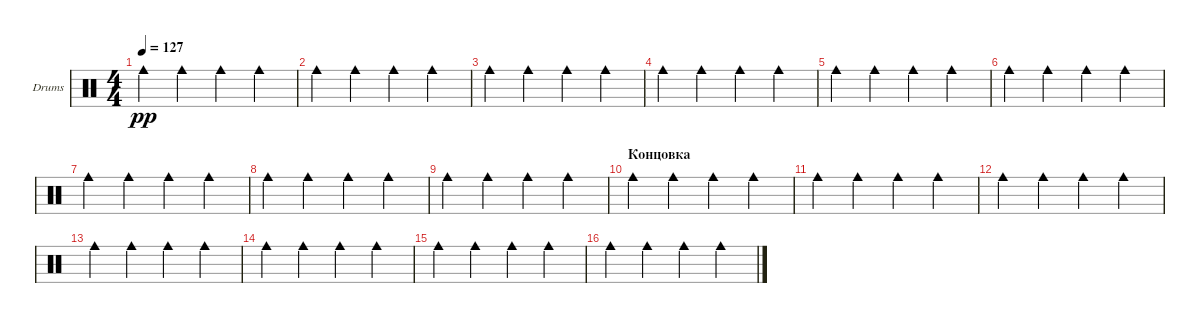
\defaultSystemsLayout 4
\bracketExtendMode groupsimilarinstruments
\firstSystemTrackNameOrientation horizontal
\otherSystemsTrackNameOrientation horizontal
\track ("Drumkit" "Drums") {instrument percussion}
\staff {score}
\articulation defaults
\ts (4 4)
\tempo 127
\clef neutral
\ks c "Cowbell medium (hit)".4{dy pp} "Cowbell medium (hit)".4 "Cowbell medium (hit)".4 "Cowbell medium (hit)".4
|
"Cowbell medium (hit)".4 "Cowbell medium (hit)".4 "Cowbell medium (hit)".4 "Cowbell medium (hit)".4 |
"Cowbell medium (hit)".4 "Cowbell medium (hit)".4 "Cowbell medium (hit)".4 "Cowbell medium (hit)".4 |
"Cowbell medium (hit)".4 "Cowbell medium (hit)".4 "Cowbell medium (hit)".4 "Cowbell medium (hit)".4 |
"Cowbell medium (hit)".4 "Cowbell medium (hit)".4 "Cowbell medium (hit)".4 "Cowbell medium (hit)".4 |
"Cowbell medium (hit)".4 "Cowbell medium (hit)".4 "Cowbell medium (hit)".4 "Cowbell medium (hit)".4 |
"Cowbell medium (hit)".4 "Cowbell medium (hit)".4 "Cowbell medium (hit)".4 "Cowbell medium (hit)".4 |
"Cowbell medium (hit)".4 "Cowbell medium (hit)".4 "Cowbell medium (hit)".4 "Cowbell medium (hit)".4 |
"Cowbell medium (hit)".4 "Cowbell medium (hit)".4 "Cowbell medium (hit)".4 "Cowbell medium (hit)".4 |
\section ("" "Концовка")
"Cowbell medium (hit)".4 "Cowbell medium (hit)".4 "Cowbell medium (hit)".4 "Cowbell medium (hit)".4 |
"Cowbell medium (hit)".4 "Cowbell medium (hit)".4 "Cowbell medium (hit)".4 "Cowbell medium (hit)".4 |
"Cowbell medium (hit)".4 "Cowbell medium (hit)".4 "Cowbell medium (hit)".4 "Cowbell medium (hit)".4 |
"Cowbell medium (hit)".4 "Cowbell medium (hit)".4 "Cowbell medium (hit)".4 "Cowbell medium (hit)".4 |
"Cowbell medium (hit)".4 "Cowbell medium (hit)".4 "Cowbell medium (hit)".4 "Cowbell medium (hit)".4 |
"Cowbell medium (hit)".4 "Cowbell medium (hit)".4 "Cowbell medium (hit)".4 "Cowbell medium (hit)".4 |
"Cowbell medium (hit)".4 "Cowbell medium (hit)".4 "Cowbell medium (hit)".4 "Cowbell medium (hit)".4
